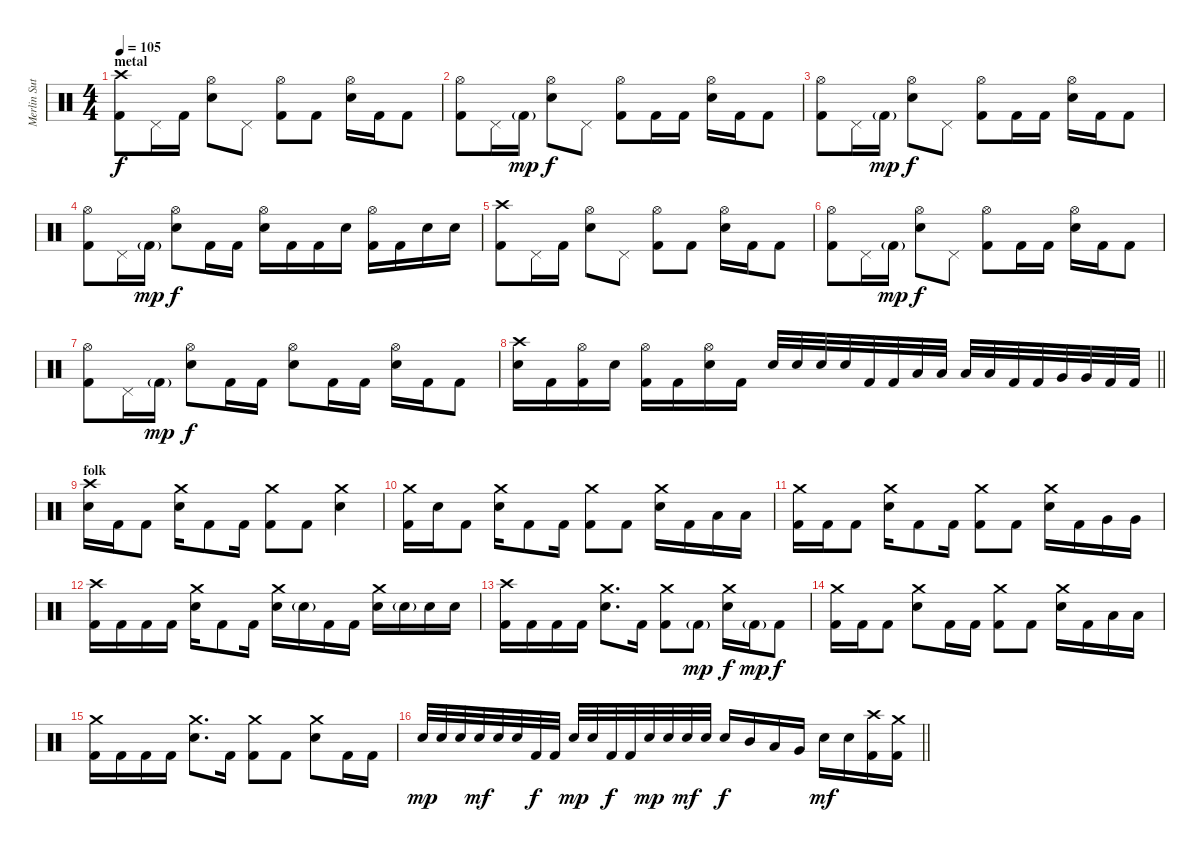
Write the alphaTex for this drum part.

\track ("Merlin Sutter" "Merlin Sut") {instrument percussion}
\staff {score}
\articulation defaults
\ts (4 4)
\section ("" "metal ")
\tempo 105
\clef neutral
\ks c
("Crash high (hit)" "Kick (hit) 2").8{dy f} "Pedal Hi-Hat (hit)".16 "Kick (hit) 2".16 ("Hi-Hat (open)" "Electric Snare (hit)").8 "Pedal Hi-Hat (hit)".8 ("Hi-Hat (open)" "Kick (hit) 2").8 "Kick (hit) 2".8 ("Hi-Hat (open)" "Electric Snare (hit)").16 "Kick (hit) 2".16 "Kick (hit) 2".8 |
("Hi-Hat (open)" "Kick (hit) 2").8 "Pedal Hi-Hat (hit)".16 "Kick (hit) 2"{g}.16{dy mp} ("Hi-Hat (open)" "Electric Snare (hit)").8{dy f} "Pedal Hi-Hat (hit)".8 ("Hi-Hat (open)" "Kick (hit) 2").8 "Kick (hit) 2".16 "Kick (hit) 2".16 ("Hi-Hat (open)" "Electric Snare (hit)").16 "Kick (hit) 2".16 "Kick (hit) 2".8 |
("Hi-Hat (open)" "Kick (hit) 2").8 "Pedal Hi-Hat (hit)".16 "Kick (hit) 2"{g}.16{dy mp} ("Hi-Hat (open)" "Electric Snare (hit)").8{dy f} "Pedal Hi-Hat (hit)".8 ("Hi-Hat (open)" "Kick (hit) 2").8 "Kick (hit) 2".16 "Kick (hit) 2".16 ("Hi-Hat (open)" "Electric Snare (hit)").16 "Kick (hit) 2".16 "Kick (hit) 2".8 |
("Hi-Hat (open)" "Kick (hit) 2").8 "Pedal Hi-Hat (hit)".16 "Kick (hit) 2"{g}.16{dy mp} ("Hi-Hat (open)" "Electric Snare (hit)").8{dy f} "Kick (hit) 2".16 "Kick (hit) 2".16 ("Hi-Hat (open)" "Electric Snare (hit)").16 "Kick (hit) 2".16 "Kick (hit) 2".16 "Electric Snare (hit)".16 ("Hi-Hat (open)" "Kick (hit) 2").16 "Kick (hit) 2".16 "Electric Snare (hit)".16 "Electric Snare (hit)".16 |
("Crash high (hit)" "Kick (hit) 2").8 "Pedal Hi-Hat (hit)".16 "Kick (hit) 2".16 ("Hi-Hat (open)" "Electric Snare (hit)").8 "Pedal Hi-Hat (hit)".8 ("Hi-Hat (open)" "Kick (hit) 2").8 "Kick (hit) 2".8 ("Hi-Hat (open)" "Electric Snare (hit)").16 "Kick (hit) 2".16 "Kick (hit) 2".8 |
("Hi-Hat (open)" "Kick (hit) 2").8 "Pedal Hi-Hat (hit)".16 "Kick (hit) 2"{g}.16{dy mp} ("Hi-Hat (open)" "Electric Snare (hit)").8{dy f} "Pedal Hi-Hat (hit)".8 ("Hi-Hat (open)" "Kick (hit) 2").8 "Kick (hit) 2".16 "Kick (hit) 2".16 ("Hi-Hat (open)" "Electric Snare (hit)").16 "Kick (hit) 2".16 "Kick (hit) 2".8 |
("Hi-Hat (open)" "Kick (hit) 2").8 "Pedal Hi-Hat (hit)".16 "Kick (hit) 2"{g}.16{dy mp} ("Hi-Hat (open)" "Electric Snare (hit)").8{dy f} "Kick (hit) 2".16 "Kick (hit) 2".16 ("Hi-Hat (open)" "Electric Snare (hit)").8 "Kick (hit) 2".16 "Kick (hit) 2".16 ("Hi-Hat (open)" "Electric Snare (hit)").16 "Kick (hit) 2".16 "Kick (hit) 2".8 |
\barLineRight lightlight
("Crash high (hit)" "Electric Snare (hit)").16 "Kick (hit) 2".16 ("Hi-Hat (open)" "Kick (hit) 2").16 "Electric Snare (hit)".16 ("Hi-Hat (open)" "Kick (hit) 2").16 "Kick (hit) 2".16 ("Hi-Hat (open)" "Electric Snare (hit)").16 "Kick (hit) 2".16 "Electric Snare (hit)".32 "Electric Snare (hit)".32 "Electric Snare (hit)".32 "Electric Snare (hit)".32 "Kick (hit) 2".32 "Kick (hit) 2".32 "Low Tom (hit)".32 "Low Tom (hit)".32 "Low Tom (hit)".32 "Low Tom (hit)".32 "Kick (hit) 2".32 "Kick (hit) 2".32 "Very Low Tom (hit)".32 "Very Low Tom (hit)".32 "Kick (hit) 2".32 "Kick (hit) 2".32 |
\section ("" "folk")
("Crash high (hit)" "Electric Snare (hit)").16 "Kick (hit) 2".16 "Kick (hit) 2".8 ("Crash medium (hit)" "Electric Snare (hit)").16 "Kick (hit) 2".8 "Kick (hit) 2".16 ("Crash medium (hit)" "Kick (hit) 2").8 "Kick (hit) 2".8 ("Crash medium (hit)" "Electric Snare (hit)").4 |
("Crash medium (hit)" "Kick (hit) 2").16 "Electric Snare (hit)".16 "Kick (hit) 2".8 ("Crash medium (hit)" "Electric Snare (hit)").16 "Kick (hit) 2".8 "Kick (hit) 2".16 ("Crash medium (hit)" "Kick (hit) 2").8 "Kick (hit) 2".8 ("Crash medium (hit)" "Electric Snare (hit)").16 "Kick (hit) 2".16 "Low Floor Tom (hit)".16 "Low Floor Tom (hit)".16 |
("Crash medium (hit)" "Kick (hit) 2").16 "Kick (hit) 2".16 "Kick (hit) 2".8 ("Crash medium (hit)" "Electric Snare (hit)").16 "Kick (hit) 2".8 "Kick (hit) 2".16 ("Crash medium (hit)" "Kick (hit) 2").8 "Kick (hit) 2".8 ("Crash medium (hit)" "Electric Snare (hit)").16 "Kick (hit) 2".16 "Very Low Tom (hit)".16 "Very Low Tom (hit)".16 |
("Crash high (hit)" "Kick (hit) 2").16 "Kick (hit) 2".16 "Kick (hit) 2".16 "Kick (hit) 2".16 ("Crash medium (hit)" "Electric Snare (hit)").16 "Kick (hit) 2".8 "Kick (hit) 2".16 ("Crash medium (hit)" "Electric Snare (hit)").16 "Electric Snare (hit)"{g}.16 "Kick (hit) 2".16 "Kick (hit) 2".16 ("Crash medium (hit)" "Electric Snare (hit)").16 "Electric Snare (hit)"{g}.16 "Electric Snare (hit)".16 "Electric Snare (hit)".16 |
("Crash high (hit)" "Kick (hit) 2").16 "Kick (hit) 2".16 "Kick (hit) 2".16 "Kick (hit) 2".16 ("Crash medium (hit)" "Electric Snare (hit)").8{d} "Kick (hit) 2".16 ("Crash medium (hit)" "Kick (hit) 2").8 "Kick (hit) 2"{g}.8{dy mp} ("Crash medium (hit)" "Electric Snare (hit)").16{dy f} "Kick (hit) 2"{g}.16{dy mp} "Kick (hit) 2".8{dy f} |
("Crash medium (hit)" "Kick (hit) 2").16 "Kick (hit) 2".16 "Kick (hit) 2".8 ("Crash medium (hit)" "Electric Snare (hit)").8 "Kick (hit) 2".16 "Kick (hit) 2".16 ("Crash medium (hit)" "Kick (hit) 2").8 "Kick (hit) 2".8 ("Crash medium (hit)" "Electric Snare (hit)").16 "Kick (hit) 2".16 "Low Floor Tom (hit)".16 "Low Floor Tom (hit)".16 |
("Crash medium (hit)" "Kick (hit) 2").16 "Kick (hit) 2".16 "Kick (hit) 2".16 "Kick (hit) 2".16 ("Crash medium (hit)" "Electric Snare (hit)").8{d} "Kick (hit) 2".16 ("Crash medium (hit)" "Kick (hit) 2").8 "Kick (hit) 2".8 ("Crash medium (hit)" "Electric Snare (hit)").8 "Kick (hit) 2".16 "Kick (hit) 2".16 |
\barLineRight lightlight "Electric Snare (hit)".32{dy mp} "Electric Snare (hit)".32 "Electric Snare (hit)".32 "Electric Snare (hit)".32{dy mf} "Electric Snare (hit)".32 "Electric Snare (hit)".32 "Kick (hit) 2".32{dy f} "Kick (hit) 2".32 "Electric Snare (hit)".32{dy mp} "Electric Snare (hit)".32 "Kick (hit) 2".32{dy f} "Kick (hit) 2".32 "Electric Snare (hit)".32{dy mp} "Electric Snare (hit)".32 "Electric Snare (hit)".32{dy mf} "Electric Snare (hit)".32 "Electric Snare (hit)".16{dy f} "Mid Tom (hit)".16 "Low Tom (hit)".16 "Very Low Tom (hit)".16 "Electric Snare (hit)".16{dy mf} "Electric Snare (hit)".16
("Crash high (hit)" "Kick (hit) 2").16 ("Crash medium (hit)" "Kick (hit) 2").16
